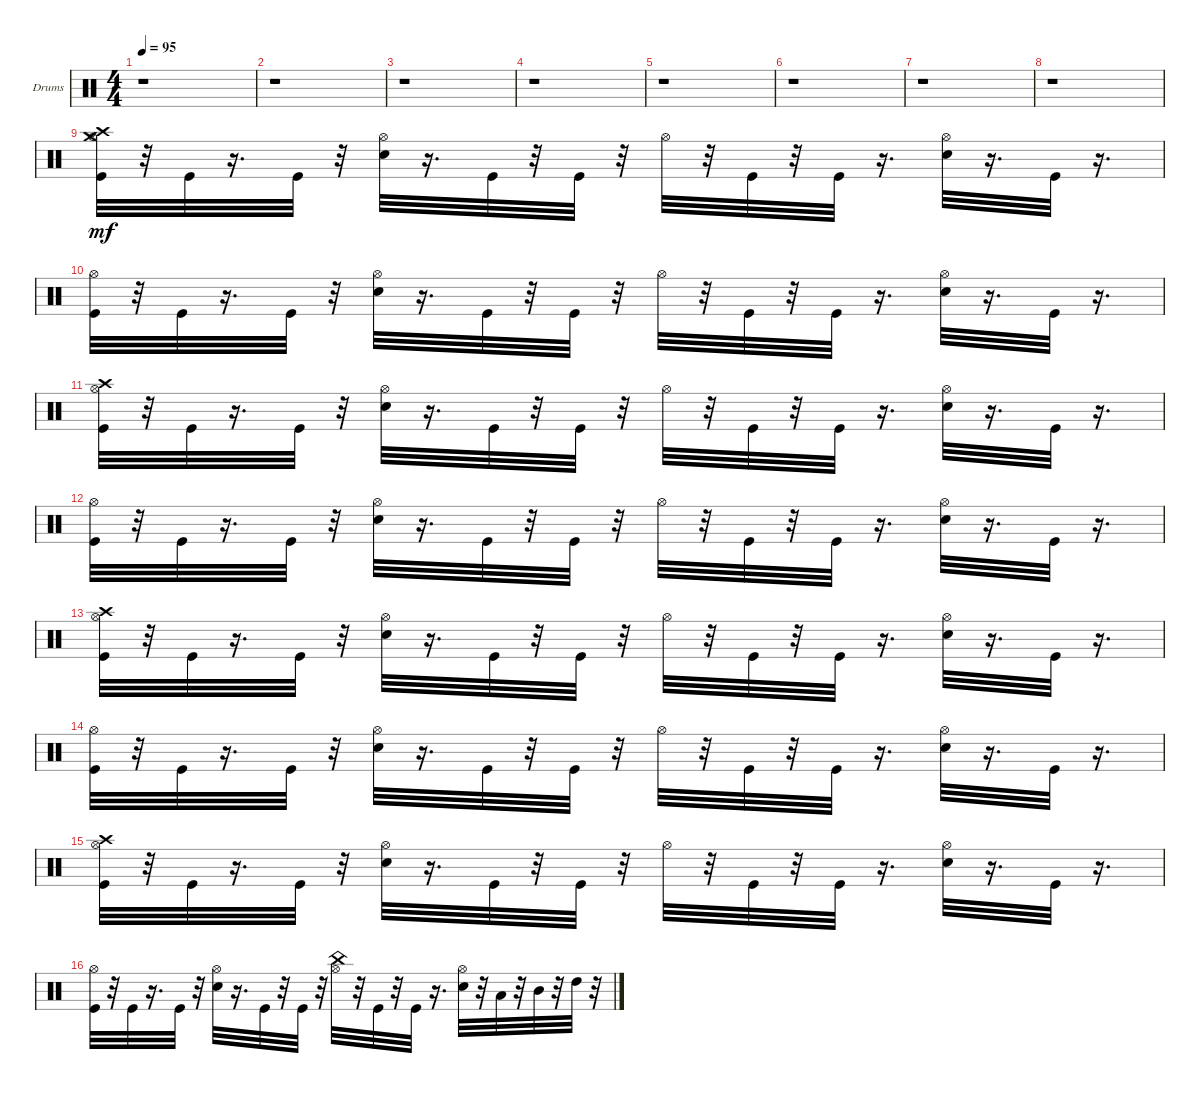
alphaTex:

\bracketExtendMode groupsimilarinstruments
\firstSystemTrackNameOrientation horizontal
\otherSystemsTrackNameOrientation horizontal
\track ("Drums" "Drums") {instrument percussion}
\staff {score}
\articulation defaults
\ts (4 4)
\tempo 95
\clef neutral
\ks c
r.1{dy mf} |
r.1 |
r.1 |
r.1 |
r.1 |
r.1 |
r.1 |
r.1 |
("Kick (hit)" "Hi-Hat (open)" "Crash high (hit)" "Crash medium (hit)").32 r.32 "Kick (hit)".32 r.16{d} "Kick (hit)".32 r.32 ("Snare (hit) 2" "Hi-Hat (open)").32 r.16{d} "Kick (hit)".32 r.32 "Kick (hit)".32 r.32 "Hi-Hat (open)".32 r.32 "Kick (hit)".32 r.32 "Kick (hit)".32 r.16{d} ("Snare (hit) 2" "Hi-Hat (open)").32 r.16{d} "Kick (hit)".32 r.16{d} |
("Kick (hit)" "Hi-Hat (open)").32 r.32 "Kick (hit)".32 r.16{d} "Kick (hit)".32 r.32 ("Snare (hit) 2" "Hi-Hat (open)").32 r.16{d} "Kick (hit)".32 r.32 "Kick (hit)".32 r.32 "Hi-Hat (open)".32 r.32 "Kick (hit)".32 r.32 "Kick (hit)".32 r.16{d} ("Snare (hit) 2" "Hi-Hat (open)").32 r.16{d} "Kick (hit)".32 r.16{d} |
("Kick (hit)" "Hi-Hat (open)" "Crash high (hit)").32 r.32 "Kick (hit)".32 r.16{d} "Kick (hit)".32 r.32 ("Snare (hit) 2" "Hi-Hat (open)").32 r.16{d} "Kick (hit)".32 r.32 "Kick (hit)".32 r.32 "Hi-Hat (open)".32 r.32 "Kick (hit)".32 r.32 "Kick (hit)".32 r.16{d} ("Snare (hit) 2" "Hi-Hat (open)").32 r.16{d} "Kick (hit)".32 r.16{d} |
("Kick (hit)" "Hi-Hat (open)").32 r.32 "Kick (hit)".32 r.16{d} "Kick (hit)".32 r.32 ("Snare (hit) 2" "Hi-Hat (open)").32 r.16{d} "Kick (hit)".32 r.32 "Kick (hit)".32 r.32 "Hi-Hat (open)".32 r.32 "Kick (hit)".32 r.32 "Kick (hit)".32 r.16{d} ("Snare (hit) 2" "Hi-Hat (open)").32 r.16{d} "Kick (hit)".32 r.16{d} |
("Kick (hit)" "Hi-Hat (open)" "Crash high (hit)").32 r.32 "Kick (hit)".32 r.16{d} "Kick (hit)".32 r.32 ("Snare (hit) 2" "Hi-Hat (open)").32 r.16{d} "Kick (hit)".32 r.32 "Kick (hit)".32 r.32 "Hi-Hat (open)".32 r.32 "Kick (hit)".32 r.32 "Kick (hit)".32 r.16{d} ("Snare (hit) 2" "Hi-Hat (open)").32 r.16{d} "Kick (hit)".32 r.16{d} |
("Kick (hit)" "Hi-Hat (open)").32 r.32 "Kick (hit)".32 r.16{d} "Kick (hit)".32 r.32 ("Snare (hit) 2" "Hi-Hat (open)").32 r.16{d} "Kick (hit)".32 r.32 "Kick (hit)".32 r.32 "Hi-Hat (open)".32 r.32 "Kick (hit)".32 r.32 "Kick (hit)".32 r.16{d} ("Snare (hit) 2" "Hi-Hat (open)").32 r.16{d} "Kick (hit)".32 r.16{d} |
("Kick (hit)" "Hi-Hat (open)" "Crash high (hit)").32 r.32 "Kick (hit)".32 r.16{d} "Kick (hit)".32 r.32 ("Snare (hit) 2" "Hi-Hat (open)").32 r.16{d} "Kick (hit)".32 r.32 "Kick (hit)".32 r.32 "Hi-Hat (open)".32 r.32 "Kick (hit)".32 r.32 "Kick (hit)".32 r.16{d} ("Snare (hit) 2" "Hi-Hat (open)").32 r.16{d} "Kick (hit)".32 r.16{d} |
("Kick (hit)" "Hi-Hat (open)").32 r.32 "Kick (hit)".32 r.16{d} "Kick (hit)".32 r.32 ("Snare (hit) 2" "Hi-Hat (open)").32 r.16{d} "Kick (hit)".32 r.32 "Kick (hit)".32 r.32 ("Hi-Hat (open)" "China (hit)").32 r.32 "Kick (hit)".32 r.32 "Kick (hit)".32 r.16{d} ("Snare (hit) 2" "Hi-Hat (open)").32 r.32 "Low Tom (hit)".32 r.32 "Mid Tom (hit)".32 r.32 "High Tom (hit)".32 r.32
